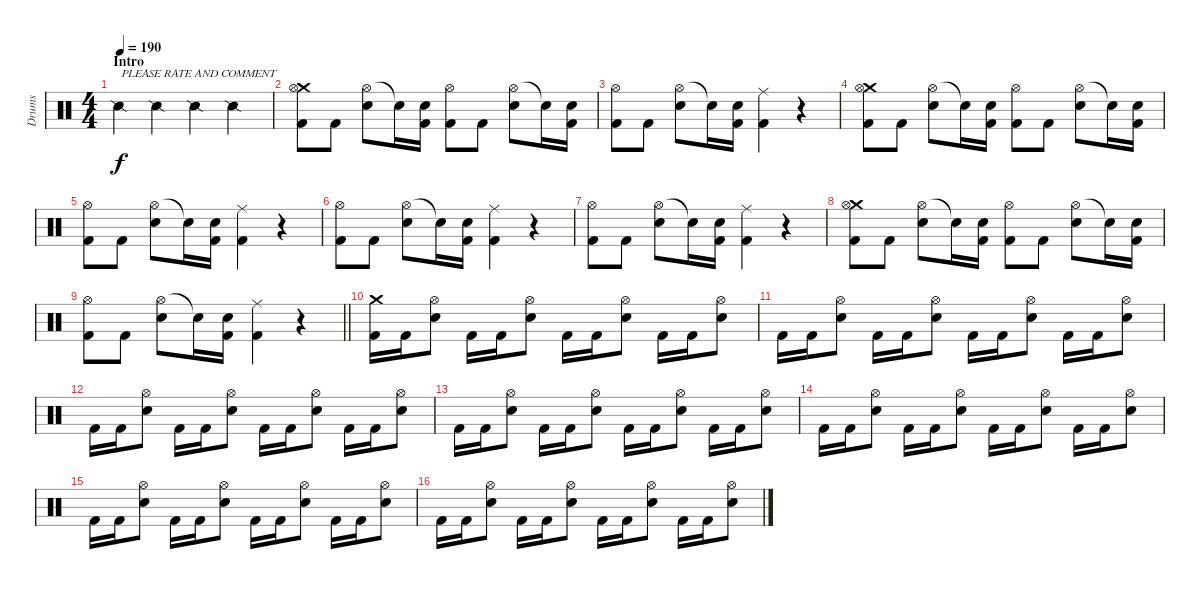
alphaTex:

\track ("Drums" "Drums") {instrument percussion}
\staff {score}
\articulation defaults
\ts (4 4)
\section ("" "Intro")
\tempo 190
\clef neutral
\ks c "Snare (side stick) 2".4{txt "PLEASE RATE AND COMMENT" dy f} "Snare (side stick) 2".4 "Snare (side stick) 2".4 "Snare (side stick) 2".4
|
("Crash medium (hit)" "Hi-Hat (open)" "Kick (hit) 2").8 "Kick (hit) 2".8 ("Hi-Hat (open)" "Electric Snare (hit)").8 "Snare (hit)"{t}.16 ("Electric Snare (hit)" "Kick (hit) 2").16 ("Hi-Hat (open)" "Kick (hit) 2").8 "Kick (hit) 2".8 ("Hi-Hat (open)" "Electric Snare (hit)").8 "Snare (hit)"{t}.16 ("Electric Snare (hit)" "Kick (hit) 2").16 |
("Hi-Hat (open)" "Kick (hit) 2").8 "Kick (hit) 2".8 ("Hi-Hat (open)" "Electric Snare (hit)").8 "Snare (hit)"{t}.16 ("Electric Snare (hit)" "Kick (hit) 2").16 ("Ride (middle)" "Kick (hit) 2").4 r.4 |
("Crash medium (hit)" "Hi-Hat (open)" "Kick (hit) 2").8 "Kick (hit) 2".8 ("Hi-Hat (open)" "Electric Snare (hit)").8 "Snare (hit)"{t}.16 ("Electric Snare (hit)" "Kick (hit) 2").16 ("Hi-Hat (open)" "Kick (hit) 2").8 "Kick (hit) 2".8 ("Hi-Hat (open)" "Electric Snare (hit)").8 "Snare (hit)"{t}.16 ("Electric Snare (hit)" "Kick (hit) 2").16 |
("Hi-Hat (open)" "Kick (hit) 2").8 "Kick (hit) 2".8 ("Hi-Hat (open)" "Electric Snare (hit)").8 "Snare (hit)"{t}.16 ("Electric Snare (hit)" "Kick (hit) 2").16 ("Ride (middle)" "Kick (hit) 2").4 r.4 |
("Hi-Hat (open)" "Kick (hit) 2").8 "Kick (hit) 2".8 ("Hi-Hat (open)" "Electric Snare (hit)").8 "Snare (hit)"{t}.16 ("Electric Snare (hit)" "Kick (hit) 2").16 ("Ride (middle)" "Kick (hit) 2").4 r.4 |
("Hi-Hat (open)" "Kick (hit) 2").8 "Kick (hit) 2".8 ("Hi-Hat (open)" "Electric Snare (hit)").8 "Snare (hit)"{t}.16 ("Electric Snare (hit)" "Kick (hit) 2").16 ("Ride (middle)" "Kick (hit) 2").4 r.4 |
("Crash medium (hit)" "Hi-Hat (open)" "Kick (hit) 2").8 "Kick (hit) 2".8 ("Hi-Hat (open)" "Electric Snare (hit)").8 "Snare (hit)"{t}.16 ("Electric Snare (hit)" "Kick (hit) 2").16 ("Hi-Hat (open)" "Kick (hit) 2").8 "Kick (hit) 2".8 ("Hi-Hat (open)" "Electric Snare (hit)").8 "Snare (hit)"{t}.16 ("Electric Snare (hit)" "Kick (hit) 2").16 |
\barLineRight lightlight
("Hi-Hat (open)" "Kick (hit) 2").8 "Kick (hit) 2".8 ("Hi-Hat (open)" "Electric Snare (hit)").8 "Snare (hit)"{t}.16 ("Electric Snare (hit)" "Kick (hit) 2").16 ("Ride (middle)" "Kick (hit) 2").4 r.4 |
\section ("" "")
("Crash medium (hit)" "Kick (hit) 2").16 "Kick (hit) 2".16 ("Hi-Hat (open)" "Electric Snare (hit)").8 "Kick (hit) 2".16 "Kick (hit) 2".16 ("Hi-Hat (open)" "Electric Snare (hit)").8 "Kick (hit) 2".16 "Kick (hit) 2".16 ("Hi-Hat (open)" "Electric Snare (hit)").8 "Kick (hit) 2".16 "Kick (hit) 2".16 ("Hi-Hat (open)" "Electric Snare (hit)").8 |
"Kick (hit) 2".16 "Kick (hit) 2".16 ("Hi-Hat (open)" "Electric Snare (hit)").8 "Kick (hit) 2".16 "Kick (hit) 2".16 ("Hi-Hat (open)" "Electric Snare (hit)").8 "Kick (hit) 2".16 "Kick (hit) 2".16 ("Hi-Hat (open)" "Electric Snare (hit)").8 "Kick (hit) 2".16 "Kick (hit) 2".16 ("Hi-Hat (open)" "Electric Snare (hit)").8 |
"Kick (hit) 2".16 "Kick (hit) 2".16 ("Hi-Hat (open)" "Electric Snare (hit)").8 "Kick (hit) 2".16 "Kick (hit) 2".16 ("Hi-Hat (open)" "Electric Snare (hit)").8 "Kick (hit) 2".16 "Kick (hit) 2".16 ("Hi-Hat (open)" "Electric Snare (hit)").8 "Kick (hit) 2".16 "Kick (hit) 2".16 ("Hi-Hat (open)" "Electric Snare (hit)").8 |
"Kick (hit) 2".16 "Kick (hit) 2".16 ("Hi-Hat (open)" "Electric Snare (hit)").8 "Kick (hit) 2".16 "Kick (hit) 2".16 ("Hi-Hat (open)" "Electric Snare (hit)").8 "Kick (hit) 2".16 "Kick (hit) 2".16 ("Hi-Hat (open)" "Electric Snare (hit)").8 "Kick (hit) 2".16 "Kick (hit) 2".16 ("Hi-Hat (open)" "Electric Snare (hit)").8 |
"Kick (hit) 2".16 "Kick (hit) 2".16 ("Hi-Hat (open)" "Electric Snare (hit)").8 "Kick (hit) 2".16 "Kick (hit) 2".16 ("Hi-Hat (open)" "Electric Snare (hit)").8 "Kick (hit) 2".16 "Kick (hit) 2".16 ("Hi-Hat (open)" "Electric Snare (hit)").8 "Kick (hit) 2".16 "Kick (hit) 2".16 ("Hi-Hat (open)" "Electric Snare (hit)").8 |
"Kick (hit) 2".16 "Kick (hit) 2".16 ("Hi-Hat (open)" "Electric Snare (hit)").8 "Kick (hit) 2".16 "Kick (hit) 2".16 ("Hi-Hat (open)" "Electric Snare (hit)").8 "Kick (hit) 2".16 "Kick (hit) 2".16 ("Hi-Hat (open)" "Electric Snare (hit)").8 "Kick (hit) 2".16 "Kick (hit) 2".16 ("Hi-Hat (open)" "Electric Snare (hit)").8 |
"Kick (hit) 2".16 "Kick (hit) 2".16 ("Hi-Hat (open)" "Electric Snare (hit)").8 "Kick (hit) 2".16 "Kick (hit) 2".16 ("Hi-Hat (open)" "Electric Snare (hit)").8 "Kick (hit) 2".16 "Kick (hit) 2".16 ("Hi-Hat (open)" "Electric Snare (hit)").8 "Kick (hit) 2".16 "Kick (hit) 2".16 ("Hi-Hat (open)" "Electric Snare (hit)").8
